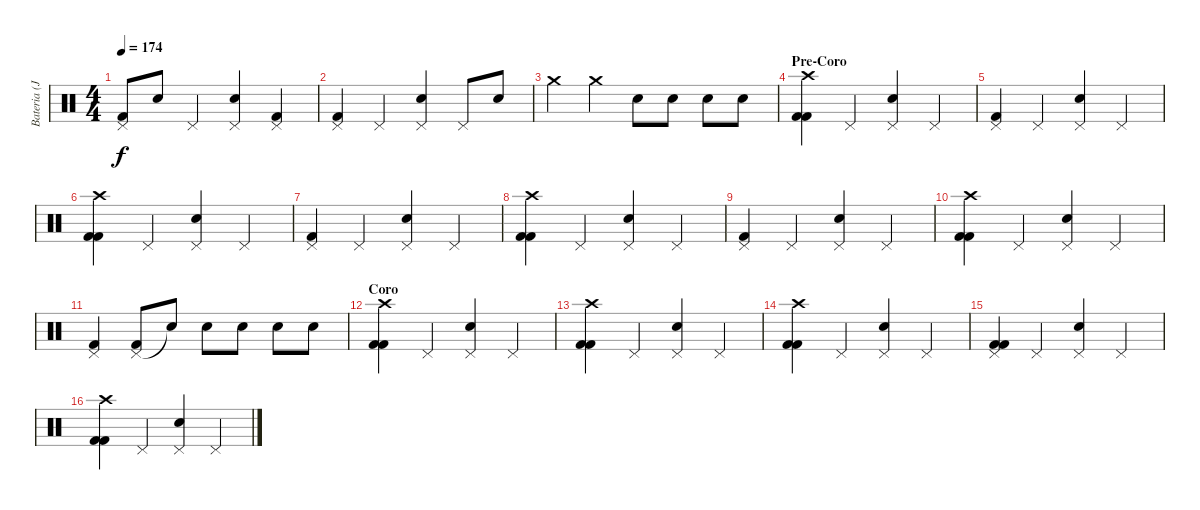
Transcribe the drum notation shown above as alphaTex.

\track ("Bateria (Jefrey Fischman)" "Bateria (J") {instrument percussion}
\staff {score}
\articulation defaults
\ts (4 4)
\tempo 174
\clef neutral
\ks c
("Pedal Hi-Hat (hit)" "Kick (hit) 2").8{dy f} "Snare (hit) 2".8 "Pedal Hi-Hat (hit)".4 ("Pedal Hi-Hat (hit)" "Snare (hit) 2").4 ("Pedal Hi-Hat (hit)" "Kick (hit) 2").4 |
("Pedal Hi-Hat (hit)" "Kick (hit) 2").4 "Pedal Hi-Hat (hit)".4 ("Pedal Hi-Hat (hit)" "Snare (hit) 2").4 "Pedal Hi-Hat (hit)".8 "Snare (hit) 2".8 |
"Crash medium (hit)".4 "Crash medium (hit)".4 "Snare (hit) 2".8 "Snare (hit) 2".8 "Snare (hit) 2".8 "Snare (hit) 2".8 |
\section ("" "Pre-Coro")
("Crash high (hit)" "Kick (hit) 2" "Kick (hit) 2").4 "Pedal Hi-Hat (hit)".4 ("Pedal Hi-Hat (hit)" "Snare (hit) 2").4 "Pedal Hi-Hat (hit)".4 |
("Pedal Hi-Hat (hit)" "Kick (hit) 2").4 "Pedal Hi-Hat (hit)".4 ("Pedal Hi-Hat (hit)" "Snare (hit) 2").4 "Pedal Hi-Hat (hit)".4 |
("Crash high (hit)" "Kick (hit) 2" "Kick (hit) 2").4 "Pedal Hi-Hat (hit)".4 ("Pedal Hi-Hat (hit)" "Snare (hit) 2").4 "Pedal Hi-Hat (hit)".4 |
("Pedal Hi-Hat (hit)" "Kick (hit) 2").4 "Pedal Hi-Hat (hit)".4 ("Pedal Hi-Hat (hit)" "Snare (hit) 2").4 "Pedal Hi-Hat (hit)".4 |
("Crash high (hit)" "Kick (hit) 2" "Kick (hit) 2").4 "Pedal Hi-Hat (hit)".4 ("Pedal Hi-Hat (hit)" "Snare (hit) 2").4 "Pedal Hi-Hat (hit)".4 |
("Pedal Hi-Hat (hit)" "Kick (hit) 2").4 "Pedal Hi-Hat (hit)".4 ("Pedal Hi-Hat (hit)" "Snare (hit) 2").4 "Pedal Hi-Hat (hit)".4 |
("Crash high (hit)" "Kick (hit) 2" "Kick (hit) 2").4 "Pedal Hi-Hat (hit)".4 ("Pedal Hi-Hat (hit)" "Snare (hit) 2").4 "Pedal Hi-Hat (hit)".4 |
("Pedal Hi-Hat (hit)" "Kick (hit) 2").4 ("Pedal Hi-Hat (hit)" "Kick (hit) 2").8 "Snare (hit)"{t}.8 "Snare (hit) 2".8 "Snare (hit) 2".8 "Snare (hit) 2".8 "Snare (hit) 2".8 |
\section ("" "Coro")
("Crash high (hit)" "Kick (hit) 2" "Kick (hit) 2").4 "Pedal Hi-Hat (hit)".4 ("Pedal Hi-Hat (hit)" "Snare (hit) 2").4 "Pedal Hi-Hat (hit)".4 |
("Crash high (hit)" "Kick (hit) 2" "Kick (hit) 2").4 "Pedal Hi-Hat (hit)".4 ("Pedal Hi-Hat (hit)" "Snare (hit) 2").4 "Pedal Hi-Hat (hit)".4 |
("Crash high (hit)" "Kick (hit) 2" "Kick (hit) 2").4 "Pedal Hi-Hat (hit)".4 ("Pedal Hi-Hat (hit)" "Snare (hit) 2").4 "Pedal Hi-Hat (hit)".4 |
("Pedal Hi-Hat (hit)" "Kick (hit) 2" "Kick (hit) 2").4 "Pedal Hi-Hat (hit)".4 ("Pedal Hi-Hat (hit)" "Snare (hit) 2").4 "Pedal Hi-Hat (hit)".4 |
("Crash high (hit)" "Kick (hit) 2" "Kick (hit) 2").4 "Pedal Hi-Hat (hit)".4 ("Pedal Hi-Hat (hit)" "Snare (hit) 2").4 "Pedal Hi-Hat (hit)".4
